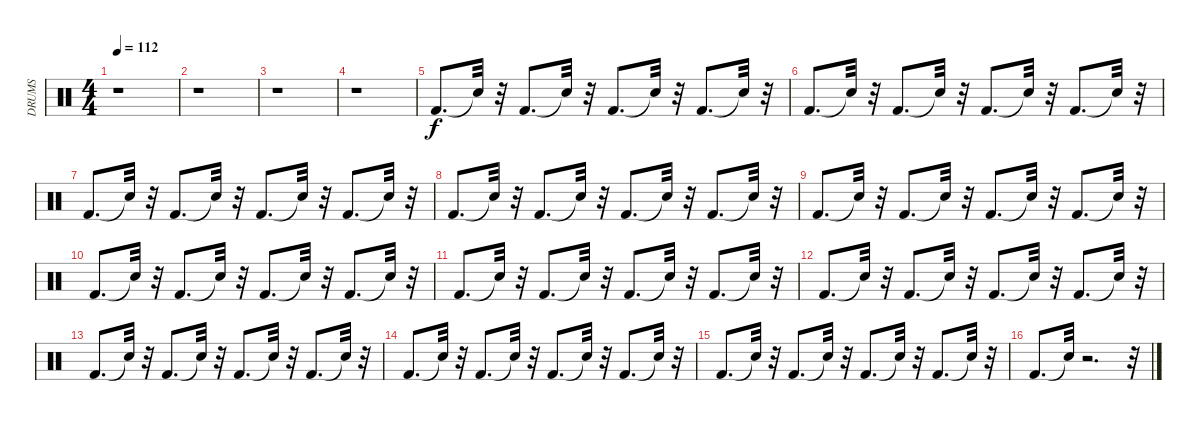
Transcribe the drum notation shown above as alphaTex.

\track ("DRUMS" "DRUMS") {instrument percussion}
\staff {score}
\articulation defaults
\ts (4 4)
\tempo 112
\clef neutral
\ks c
r.1{dy f} |
r.1 |
r.1 |
r.1 |
"Kick (hit) 2".8{d} "Snare (hit)"{t}.32 r.32 "Kick (hit) 2".8{d} "Snare (hit)"{t}.32 r.32 "Kick (hit) 2".8{d} "Snare (hit)"{t}.32 r.32 "Kick (hit) 2".8{d} "Snare (hit)"{t}.32 r.32 |
"Kick (hit) 2".8{d} "Snare (hit)"{t}.32 r.32 "Kick (hit) 2".8{d} "Snare (hit)"{t}.32 r.32 "Kick (hit) 2".8{d} "Snare (hit)"{t}.32 r.32 "Kick (hit) 2".8{d} "Snare (hit)"{t}.32 r.32 |
"Kick (hit) 2".8{d} "Snare (hit)"{t}.32 r.32 "Kick (hit) 2".8{d} "Snare (hit)"{t}.32 r.32 "Kick (hit) 2".8{d} "Snare (hit)"{t}.32 r.32 "Kick (hit) 2".8{d} "Snare (hit)"{t}.32 r.32 |
"Kick (hit) 2".8{d} "Snare (hit)"{t}.32 r.32 "Kick (hit) 2".8{d} "Snare (hit)"{t}.32 r.32 "Kick (hit) 2".8{d} "Snare (hit)"{t}.32 r.32 "Kick (hit) 2".8{d} "Snare (hit)"{t}.32 r.32 |
"Kick (hit) 2".8{d} "Snare (hit)"{t}.32 r.32 "Kick (hit) 2".8{d} "Snare (hit)"{t}.32 r.32 "Kick (hit) 2".8{d} "Snare (hit)"{t}.32 r.32 "Kick (hit) 2".8{d} "Snare (hit)"{t}.32 r.32 |
"Kick (hit) 2".8{d} "Snare (hit)"{t}.32 r.32 "Kick (hit) 2".8{d} "Snare (hit)"{t}.32 r.32 "Kick (hit) 2".8{d} "Snare (hit)"{t}.32 r.32 "Kick (hit) 2".8{d} "Snare (hit)"{t}.32 r.32 |
"Kick (hit) 2".8{d} "Snare (hit)"{t}.32 r.32 "Kick (hit) 2".8{d} "Snare (hit)"{t}.32 r.32 "Kick (hit) 2".8{d} "Snare (hit)"{t}.32 r.32 "Kick (hit) 2".8{d} "Snare (hit)"{t}.32 r.32 |
"Kick (hit) 2".8{d} "Snare (hit)"{t}.32 r.32 "Kick (hit) 2".8{d} "Snare (hit)"{t}.32 r.32 "Kick (hit) 2".8{d} "Snare (hit)"{t}.32 r.32 "Kick (hit) 2".8{d} "Snare (hit)"{t}.32 r.32 |
"Kick (hit) 2".8{d} "Snare (hit)"{t}.32 r.32 "Kick (hit) 2".8{d} "Snare (hit)"{t}.32 r.32 "Kick (hit) 2".8{d} "Snare (hit)"{t}.32 r.32 "Kick (hit) 2".8{d} "Snare (hit)"{t}.32 r.32 |
"Kick (hit) 2".8{d} "Snare (hit)"{t}.32 r.32 "Kick (hit) 2".8{d} "Snare (hit)"{t}.32 r.32 "Kick (hit) 2".8{d} "Snare (hit)"{t}.32 r.32 "Kick (hit) 2".8{d} "Snare (hit)"{t}.32 r.32 |
"Kick (hit) 2".8{d} "Snare (hit)"{t}.32 r.32 "Kick (hit) 2".8{d} "Snare (hit)"{t}.32 r.32 "Kick (hit) 2".8{d} "Snare (hit)"{t}.32 r.32 "Kick (hit) 2".8{d} "Snare (hit)"{t}.32 r.32 |
"Kick (hit) 2".8{d} "Snare (hit)"{t}.32 r.2{d} r.32
